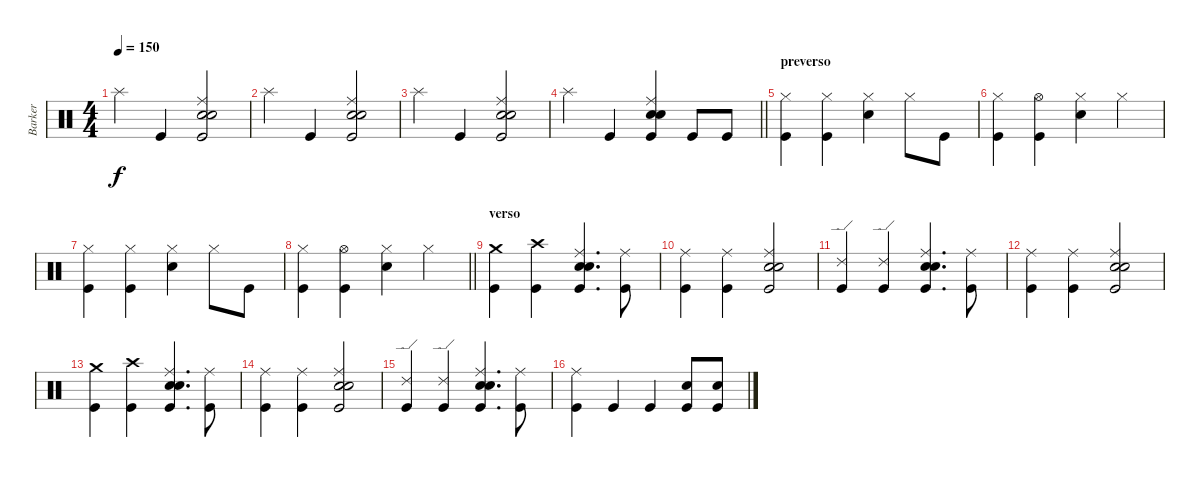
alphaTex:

\track ("Barker" "Barker") {instrument percussion}
\staff {score}
\articulation defaults
\ts (4 4)
\tempo 150
\clef neutral
\ks c "Splash (hit)".4{dy f} "Kick (hit)".4
("Ride (middle)" "Hand Clap (hit)" "Electric Snare (hit)" "Kick (hit)").2 |
"Splash (hit)".4 "Kick (hit)".4 ("Ride (middle)" "Hand Clap (hit)" "Electric Snare (hit)" "Kick (hit)").2 |
"Splash (hit)".4 "Kick (hit)".4 ("Ride (middle)" "Hand Clap (hit)" "Electric Snare (hit)" "Kick (hit)").2 |
\barLineRight lightlight "Splash (hit)".4 "Kick (hit)".4
("Ride (middle)" "Hand Clap (hit)" "Electric Snare (hit)" "Kick (hit)").4 "Kick (hit)".8 "Kick (hit)".8 |
\section ("" "preverso")
("Hi-Hat (closed)" "Kick (hit)").4 ("Hi-Hat (closed)" "Kick (hit)").4 ("Hi-Hat (closed)" "Electric Snare (hit)").4 "Hi-Hat (closed)".8 "Kick (hit)".8 |
("Hi-Hat (closed)" "Kick (hit)").4 ("Hi-Hat (open)" "Kick (hit)").4 ("Hi-Hat (closed)" "Electric Snare (hit)").4 "Hi-Hat (closed)".4 |
("Hi-Hat (closed)" "Kick (hit)").4 ("Hi-Hat (closed)" "Kick (hit)").4 ("Hi-Hat (closed)" "Electric Snare (hit)").4 "Hi-Hat (closed)".8 "Kick (hit)".8 |
\barLineRight lightlight
("Hi-Hat (closed)" "Kick (hit)").4 ("Hi-Hat (open)" "Kick (hit)").4 ("Hi-Hat (closed)" "Electric Snare (hit)").4 "Hi-Hat (closed)".4 |
\section ("" "verso")
("Crash medium (hit)" "Kick (hit)").4 ("Crash high (hit)" "Kick (hit)").4 ("Ride (middle)" "Hand Clap (hit)" "Electric Snare (hit)" "Kick (hit)").4{d} ("Ride (middle)" "Kick (hit)").8 |
("Kick (hit)" "Ride (middle)").4 ("Kick (hit)" "Ride (middle)").4 ("Ride (middle)" "Hand Clap (hit)" "Electric Snare (hit)" "Kick (hit)").2 |
("Ride (edge) 2" "Kick (hit)").4 ("Ride (edge) 2" "Kick (hit)").4 ("Ride (middle)" "Hand Clap (hit)" "Electric Snare (hit)" "Kick (hit)").4{d} ("Ride (middle)" "Kick (hit)").8 |
("Kick (hit)" "Ride (middle)").4 ("Kick (hit)" "Ride (middle)").4 ("Ride (middle)" "Hand Clap (hit)" "Electric Snare (hit)" "Kick (hit)").2 |
("Crash medium (hit)" "Kick (hit)").4 ("Crash high (hit)" "Kick (hit)").4 ("Ride (middle)" "Hand Clap (hit)" "Electric Snare (hit)" "Kick (hit)").4{d} ("Ride (middle)" "Kick (hit)").8 |
("Kick (hit)" "Ride (middle)").4 ("Kick (hit)" "Ride (middle)").4 ("Ride (middle)" "Hand Clap (hit)" "Electric Snare (hit)" "Kick (hit)").2 |
("Ride (edge) 2" "Kick (hit)").4 ("Ride (edge) 2" "Kick (hit)").4 ("Ride (middle)" "Hand Clap (hit)" "Electric Snare (hit)" "Kick (hit)").4{d} ("Ride (middle)" "Kick (hit)").8 |
("Kick (hit)" "Ride (middle)").4 "Kick (hit)".4 "Kick (hit)".4 ("Kick (hit)" "Electric Snare (hit)").8 ("Kick (hit)" "Electric Snare (hit)").8
